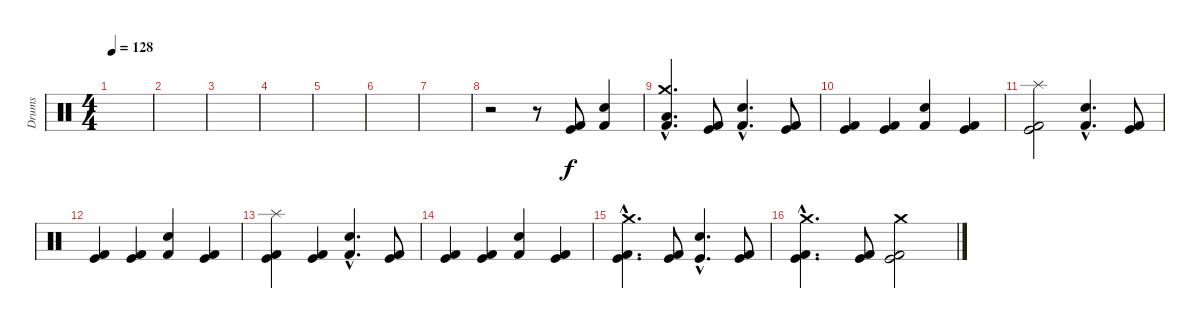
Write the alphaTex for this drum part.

\track ("Drums" "Drums") {instrument percussion}
\staff {score}
\articulation defaults
\ts (4 4)
\tempo 128
\clef neutral
\ks c
|
|
|
|
|
|
|
r.2 r.8 ("Kick (hit)" "Kick (hit) 2").8 ("Snare (hit) 2" "Kick (hit) 2").4 |
("Crash medium (hit)"{hac} "Low Floor Tom (hit)"{hac} "Kick (hit) 2"{hac}).4{d} ("Kick (hit)" "Kick (hit) 2").8 ("Snare (hit) 2"{hac} "Kick (hit) 2"{hac}).4{d} ("Kick (hit)" "Kick (hit) 2").8 |
("Kick (hit)" "Kick (hit) 2").4 ("Kick (hit)" "Kick (hit) 2").4 ("Snare (hit) 2" "Kick (hit) 2").4 ("Kick (hit)" "Kick (hit) 2").4 |
("Splash (hit)" "Kick (hit)" "Kick (hit) 2").2 ("Snare (hit) 2"{hac} "Kick (hit) 2"{hac}).4{d} ("Kick (hit)" "Kick (hit) 2").8 |
("Kick (hit)" "Kick (hit) 2").4 ("Kick (hit)" "Kick (hit) 2").4 ("Snare (hit) 2" "Kick (hit) 2").4 ("Kick (hit)" "Kick (hit) 2").4 |
("Splash (hit)" "Kick (hit)" "Kick (hit) 2").4 ("Kick (hit)" "Kick (hit) 2").4 ("Snare (hit) 2"{hac} "Kick (hit) 2"{hac}).4{d} ("Kick (hit)" "Kick (hit) 2").8 |
("Kick (hit)" "Kick (hit) 2").4 ("Kick (hit)" "Kick (hit) 2").4 ("Snare (hit) 2" "Kick (hit) 2").4 ("Kick (hit)" "Kick (hit) 2").4 |
("Crash medium (hit)"{hac} "Kick (hit)"{hac} "Kick (hit) 2"{hac}).4{d} ("Kick (hit)" "Kick (hit) 2").8 ("Snare (hit) 2"{hac} "Kick (hit)"{hac}).4{d} ("Kick (hit)" "Kick (hit) 2").8 |
("Crash medium (hit)"{hac} "Kick (hit)"{hac} "Kick (hit) 2"{hac}).4{d} ("Kick (hit)" "Kick (hit) 2").8 ("Crash medium (hit)" "Kick (hit)" "Kick (hit) 2").2
